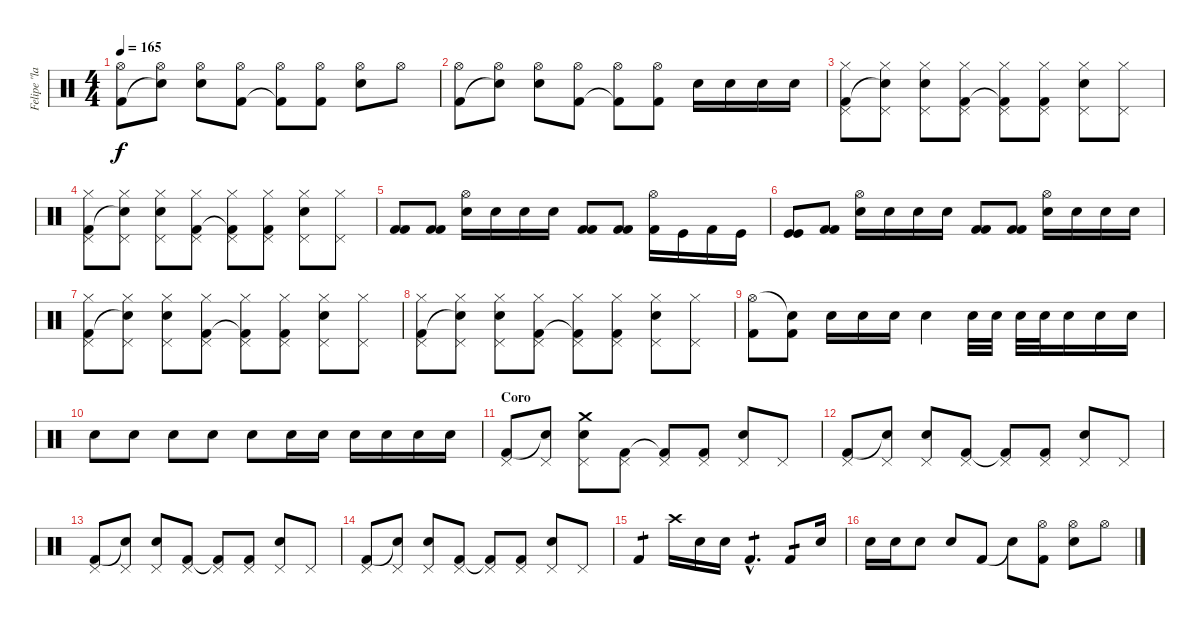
\track ("Felipe \"la caponera\" Muñoz" "Felipe \"la") {instrument percussion}
\staff {score}
\articulation defaults
\ts (4 4)
\tempo 165
\clef neutral
\ks c
("Hi-Hat (open)" "Kick (hit) 2").8{dy f} ("Hi-Hat (open)" "Snare (hit)"{t}).8 ("Hi-Hat (open)" "Electric Snare (hit)").8 ("Hi-Hat (open)" "Kick (hit) 2").8 ("Hi-Hat (open)" "Kick (hit) 2"{t}).8 ("Hi-Hat (open)" "Kick (hit) 2").8 ("Hi-Hat (open)" "Electric Snare (hit)").8 "Hi-Hat (open)".8 |
("Hi-Hat (open)" "Kick (hit) 2").8 ("Hi-Hat (open)" "Snare (hit)"{t}).8 ("Hi-Hat (open)" "Electric Snare (hit)").8 ("Hi-Hat (open)" "Kick (hit) 2").8 ("Hi-Hat (open)" "Kick (hit) 2"{t}).8 ("Hi-Hat (open)" "Kick (hit) 2").8 "Electric Snare (hit)".16 "Electric Snare (hit)".16 "Electric Snare (hit)".16 "Electric Snare (hit)".16 |
("Pedal Hi-Hat (hit)" "Hi-Hat (closed)" "Kick (hit) 2").8 ("Pedal Hi-Hat (hit)" "Hi-Hat (closed)" "Snare (hit)"{t}).8 ("Pedal Hi-Hat (hit)" "Hi-Hat (closed)" "Electric Snare (hit)").8 ("Pedal Hi-Hat (hit)" "Hi-Hat (closed)" "Kick (hit) 2").8 ("Pedal Hi-Hat (hit)" "Hi-Hat (closed)" "Kick (hit) 2"{t}).8 ("Pedal Hi-Hat (hit)" "Hi-Hat (closed)" "Kick (hit) 2").8 ("Pedal Hi-Hat (hit)" "Hi-Hat (closed)" "Electric Snare (hit)").8 ("Pedal Hi-Hat (hit)" "Hi-Hat (closed)").8 |
("Pedal Hi-Hat (hit)" "Hi-Hat (closed)" "Kick (hit) 2").8 ("Pedal Hi-Hat (hit)" "Hi-Hat (closed)" "Snare (hit)"{t}).8 ("Pedal Hi-Hat (hit)" "Hi-Hat (closed)" "Electric Snare (hit)").8 ("Pedal Hi-Hat (hit)" "Hi-Hat (closed)" "Kick (hit) 2").8 ("Pedal Hi-Hat (hit)" "Hi-Hat (closed)" "Kick (hit) 2"{t}).8 ("Pedal Hi-Hat (hit)" "Hi-Hat (closed)" "Kick (hit) 2").8 ("Pedal Hi-Hat (hit)" "Hi-Hat (closed)" "Electric Snare (hit)").8 ("Pedal Hi-Hat (hit)" "Hi-Hat (closed)").8 |
("Kick (hit) 2" "Kick (hit) 2").8 ("Kick (hit) 2" "Kick (hit) 2").8 ("Hi-Hat (open)" "Electric Snare (hit)").16 "Electric Snare (hit)".16 "Electric Snare (hit)".16 "Electric Snare (hit)".16 ("Kick (hit) 2" "Kick (hit) 2").8 ("Kick (hit) 2" "Kick (hit) 2").8 ("Hi-Hat (open)" "Kick (hit) 2").16 "Kick (hit)".16 "Kick (hit) 2".16 "Kick (hit)".16 |
("Kick (hit)" "Kick (hit)").8 ("Kick (hit) 2" "Kick (hit) 2").8 ("Hi-Hat (open)" "Electric Snare (hit)").16 "Electric Snare (hit)".16 "Electric Snare (hit)".16 "Electric Snare (hit)".16 ("Kick (hit) 2" "Kick (hit) 2").8 ("Kick (hit) 2" "Kick (hit) 2").8 ("Hi-Hat (open)" "Electric Snare (hit)").16 "Electric Snare (hit)".16 "Electric Snare (hit)".16 "Electric Snare (hit)".16 |
("Pedal Hi-Hat (hit)" "Hi-Hat (closed)" "Kick (hit) 2").8 ("Pedal Hi-Hat (hit)" "Hi-Hat (closed)" "Snare (hit)"{t}).8 ("Pedal Hi-Hat (hit)" "Hi-Hat (closed)" "Electric Snare (hit)").8 ("Pedal Hi-Hat (hit)" "Hi-Hat (closed)" "Kick (hit) 2").8 ("Pedal Hi-Hat (hit)" "Hi-Hat (closed)" "Kick (hit) 2"{t}).8 ("Pedal Hi-Hat (hit)" "Hi-Hat (closed)" "Kick (hit) 2").8 ("Pedal Hi-Hat (hit)" "Hi-Hat (closed)" "Electric Snare (hit)").8 ("Pedal Hi-Hat (hit)" "Hi-Hat (closed)").8 |
("Pedal Hi-Hat (hit)" "Hi-Hat (closed)" "Kick (hit) 2").8 ("Pedal Hi-Hat (hit)" "Hi-Hat (closed)" "Snare (hit)"{t}).8 ("Pedal Hi-Hat (hit)" "Hi-Hat (closed)" "Electric Snare (hit)").8 ("Pedal Hi-Hat (hit)" "Hi-Hat (closed)" "Kick (hit) 2").8 ("Pedal Hi-Hat (hit)" "Hi-Hat (closed)" "Kick (hit) 2"{t}).8 ("Pedal Hi-Hat (hit)" "Hi-Hat (closed)" "Kick (hit) 2").8 ("Pedal Hi-Hat (hit)" "Hi-Hat (closed)" "Electric Snare (hit)").8 ("Pedal Hi-Hat (hit)" "Hi-Hat (closed)").8 |
("Hi-Hat (open)" "Kick (hit) 2").8 ("Snare (hit)"{t} "Kick (hit) 2").8 "Electric Snare (hit)".16 "Electric Snare (hit)".16 "Electric Snare (hit)".16 "Electric Snare (hit)".4 "Electric Snare (hit)".32 "Electric Snare (hit)".32 "Electric Snare (hit)".32 "Electric Snare (hit)".32 "Electric Snare (hit)".16 "Electric Snare (hit)".16 "Electric Snare (hit)".16 |
"Electric Snare (hit)".8 "Electric Snare (hit)".8 "Electric Snare (hit)".8 "Electric Snare (hit)".8 "Electric Snare (hit)".8 "Electric Snare (hit)".16 "Electric Snare (hit)".16 "Electric Snare (hit)".16 "Electric Snare (hit)".16 "Electric Snare (hit)".16 "Electric Snare (hit)".16 |
\section ("" "Coro")
("Pedal Hi-Hat (hit)" "Kick (hit) 2").8 ("Pedal Hi-Hat (hit)" "Snare (hit)"{t}).8 ("Pedal Hi-Hat (hit)" "Crash medium (hit)" "Electric Snare (hit)").8 ("Pedal Hi-Hat (hit)" "Kick (hit) 2").8 ("Pedal Hi-Hat (hit)" "Kick (hit) 2"{t}).8 ("Pedal Hi-Hat (hit)" "Kick (hit) 2").8 ("Pedal Hi-Hat (hit)" "Electric Snare (hit)").8 "Pedal Hi-Hat (hit)".8 |
("Pedal Hi-Hat (hit)" "Kick (hit) 2").8 ("Pedal Hi-Hat (hit)" "Snare (hit)"{t}).8 ("Pedal Hi-Hat (hit)" "Electric Snare (hit)").8 ("Pedal Hi-Hat (hit)" "Kick (hit) 2").8 ("Pedal Hi-Hat (hit)" "Kick (hit) 2"{t}).8 ("Pedal Hi-Hat (hit)" "Kick (hit) 2").8 ("Pedal Hi-Hat (hit)" "Electric Snare (hit)").8 "Pedal Hi-Hat (hit)".8 |
("Pedal Hi-Hat (hit)" "Kick (hit) 2").8 ("Pedal Hi-Hat (hit)" "Snare (hit)"{t}).8 ("Pedal Hi-Hat (hit)" "Electric Snare (hit)").8 ("Pedal Hi-Hat (hit)" "Kick (hit) 2").8 ("Pedal Hi-Hat (hit)" "Kick (hit) 2"{t}).8 ("Pedal Hi-Hat (hit)" "Kick (hit) 2").8 ("Pedal Hi-Hat (hit)" "Electric Snare (hit)").8 "Pedal Hi-Hat (hit)".8 |
("Pedal Hi-Hat (hit)" "Kick (hit) 2").8 ("Pedal Hi-Hat (hit)" "Snare (hit)"{t}).8 ("Pedal Hi-Hat (hit)" "Electric Snare (hit)").8 ("Pedal Hi-Hat (hit)" "Kick (hit) 2").8 ("Pedal Hi-Hat (hit)" "Kick (hit) 2"{t}).8 ("Pedal Hi-Hat (hit)" "Kick (hit) 2").8 ("Pedal Hi-Hat (hit)" "Electric Snare (hit)").8 "Pedal Hi-Hat (hit)".8 |
"Kick (hit) 2".4{tp 1} "Crash high (hit)".16 "Electric Snare (hit)".16 "Electric Snare (hit)".16 "Kick (hit) 2"{hac}.4{d tp 1} "Kick (hit) 2".8{tp 1} "Electric Snare (hit)".16 |
"Electric Snare (hit)".16 "Electric Snare (hit)".16 "Electric Snare (hit)".8 "Electric Snare (hit)".8 "Kick (hit) 2".8 "Snare (hit)"{t}.8 ("Hi-Hat (open)" "Kick (hit) 2").8 ("Hi-Hat (open)" "Electric Snare (hit)").8 "Hi-Hat (open)".8
